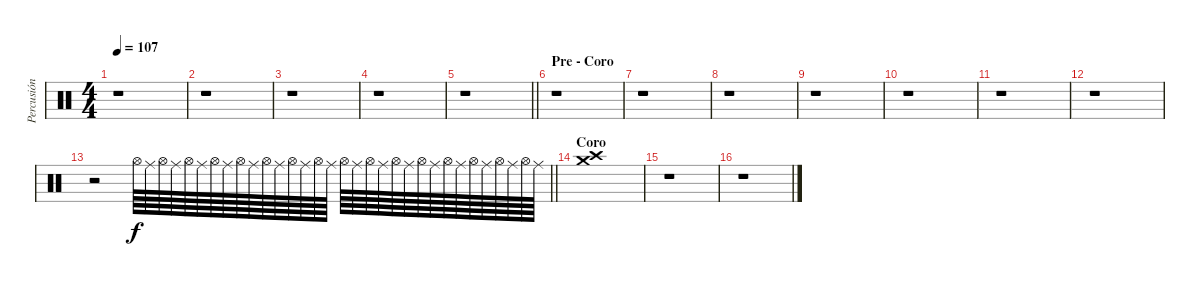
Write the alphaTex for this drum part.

\track ("Percusión" "Percusión") {instrument percussion}
\staff {score}
\articulation defaults
\ts (4 4)
\tempo 107
\clef neutral
\ks c
r.1{dy f} |
r.1 |
r.1 |
r.1 |
\barLineRight lightlight
r.1 |
\section ("" "Pre - Coro")
r.1 |
r.1 |
r.1 |
r.1 |
r.1 |
r.1 |
r.1 |
\barLineRight lightlight
r.2 "Hi-Hat (open)".64{volume 6} "Ride (middle)".64 "Hi-Hat (open)".64 "Ride (middle)".64 "Hi-Hat (open)".64 "Ride (middle)".64 "Hi-Hat (open)".64 "Ride (middle)".64 "Hi-Hat (open)".64 "Ride (middle)".64 "Hi-Hat (open)".64 "Ride (middle)".64 "Hi-Hat (open)".64 "Ride (middle)".64 "Hi-Hat (open)".64 "Ride (middle)".64 "Hi-Hat (open)".64 "Ride (middle)".64 "Hi-Hat (open)".64 "Ride (middle)".64 "Hi-Hat (open)".64 "Ride (middle)".64 "Hi-Hat (open)".64 "Ride (middle)".64 "Hi-Hat (open)".64 "Ride (middle)".64 "Hi-Hat (open)".64 "Ride (middle)".64 "Hi-Hat (open)".64 "Ride (middle)".64 "Hi-Hat (open)".64 "Ride (middle)".64 |
\section ("" "Coro")
("Crash high (hit)" "Crash medium (hit)").1 |
r.1 |
r.1
